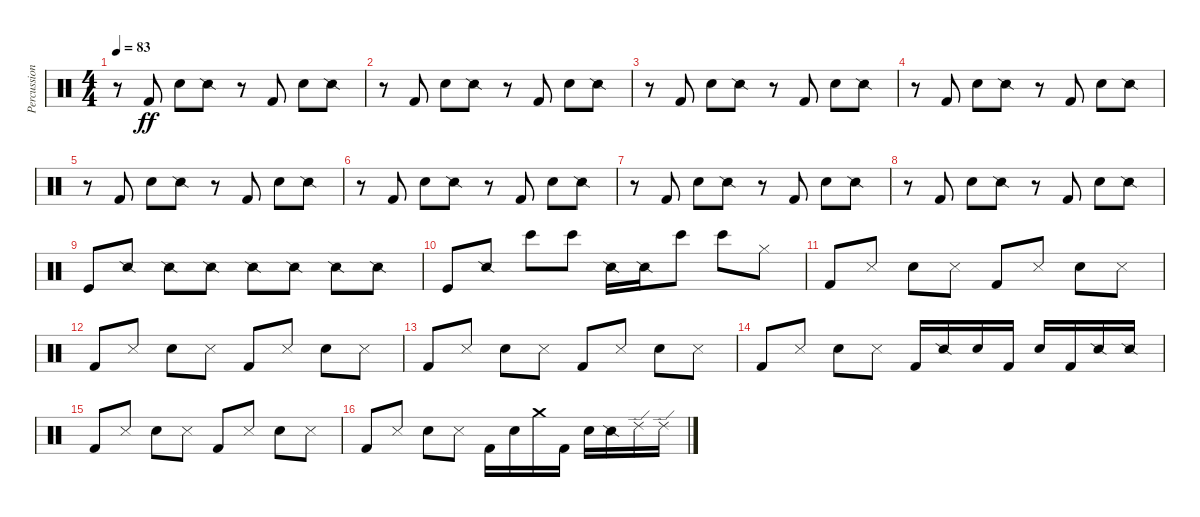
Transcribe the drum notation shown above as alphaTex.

\track ("Percussion" "Percussion") {instrument percussion}
\staff {score}
\articulation defaults
\ts (4 4)
\tempo 83
\clef neutral
\ks c
r.8{dy fff} "Kick (hit) 2".8{dy ff} "Snare (hit) 2".8 "Snare (side stick) 2".8 r.8 "Kick (hit) 2".8 "Snare (hit) 2".8 "Snare (side stick) 2".8 |
r.8 "Kick (hit) 2".8 "Snare (hit) 2".8 "Snare (side stick) 2".8 r.8 "Kick (hit) 2".8 "Snare (hit) 2".8 "Snare (side stick) 2".8 |
r.8 "Kick (hit) 2".8 "Snare (hit) 2".8 "Snare (side stick) 2".8 r.8 "Kick (hit) 2".8 "Snare (hit) 2".8 "Snare (side stick) 2".8 |
r.8 "Kick (hit) 2".8 "Snare (hit) 2".8 "Snare (side stick) 2".8 r.8 "Kick (hit) 2".8 "Snare (hit) 2".8 "Snare (side stick) 2".8 |
r.8 "Kick (hit) 2".8 "Snare (hit) 2".8 "Snare (side stick) 2".8 r.8 "Kick (hit) 2".8 "Snare (hit) 2".8 "Snare (side stick) 2".8 |
r.8 "Kick (hit) 2".8 "Snare (hit) 2".8 "Snare (side stick) 2".8 r.8 "Kick (hit) 2".8 "Snare (hit) 2".8 "Snare (side stick) 2".8 |
r.8 "Kick (hit) 2".8 "Snare (hit) 2".8 "Snare (side stick) 2".8 r.8 "Kick (hit) 2".8 "Snare (hit) 2".8 "Snare (side stick) 2".8 |
r.8 "Kick (hit) 2".8 "Snare (hit) 2".8 "Snare (side stick) 2".8 r.8 "Kick (hit) 2".8 "Snare (hit) 2".8 "Snare (side stick) 2".8 |
"Kick (hit)".8 "Snare (side stick) 2".8 "Snare (side stick) 2".8 "Snare (side stick) 2".8 "Snare (side stick) 2".8 "Snare (side stick) 2".8 "Snare (side stick) 2".8 "Snare (side stick) 2".8 |
"Kick (hit)".8 "Snare (side stick) 2".8 "Bongo High (hit)".8 "Bongo High (hit)".8 "Snare (side stick) 2".16 "Snare (side stick) 2".16 "Bongo High (hit)".8 "Bongo High (hit)".8 "Hi-Hat (closed)".8 |
"Kick (hit) 2".8 "Snare (side stick) 3".8 "Hand Clap (hit)".8 "Snare (side stick) 3".8 "Kick (hit) 2".8 "Snare (side stick) 3".8 "Hand Clap (hit)".8 "Snare (side stick) 3".8 |
"Kick (hit) 2".8 "Snare (side stick) 3".8 "Hand Clap (hit)".8 "Snare (side stick) 3".8 "Kick (hit) 2".8 "Snare (side stick) 3".8 "Hand Clap (hit)".8 "Snare (side stick) 3".8 |
"Kick (hit) 2".8 "Snare (side stick) 3".8 "Hand Clap (hit)".8 "Snare (side stick) 3".8 "Kick (hit) 2".8 "Snare (side stick) 3".8 "Hand Clap (hit)".8 "Snare (side stick) 3".8 |
"Kick (hit) 2".8 "Snare (side stick) 3".8 "Hand Clap (hit)".8 "Snare (side stick) 3".8 "Kick (hit) 2".16 "Snare (side stick) 2".16 "Hand Clap (hit)".16 "Kick (hit) 2".16 "Hand Clap (hit)".16 "Kick (hit) 2".16 "Snare (side stick) 2".16 "Snare (side stick) 2".16 |
"Kick (hit) 2".8 "Snare (side stick) 3".8 "Hand Clap (hit)".8 "Snare (side stick) 3".8 "Kick (hit) 2".8 "Snare (side stick) 3".8 "Hand Clap (hit)".8 "Snare (side stick) 3".8 |
"Kick (hit) 2".8 "Snare (side stick) 3".8 "Hand Clap (hit)".8 "Snare (side stick) 3".8 "Kick (hit) 2".16 "Hand Clap (hit)".16 "Crash medium (hit)".16 "Kick (hit) 2".16 "Hand Clap (hit)".16 "Snare (side stick) 2".16 "Ride (edge) 2".16 "Ride (edge) 2".16
